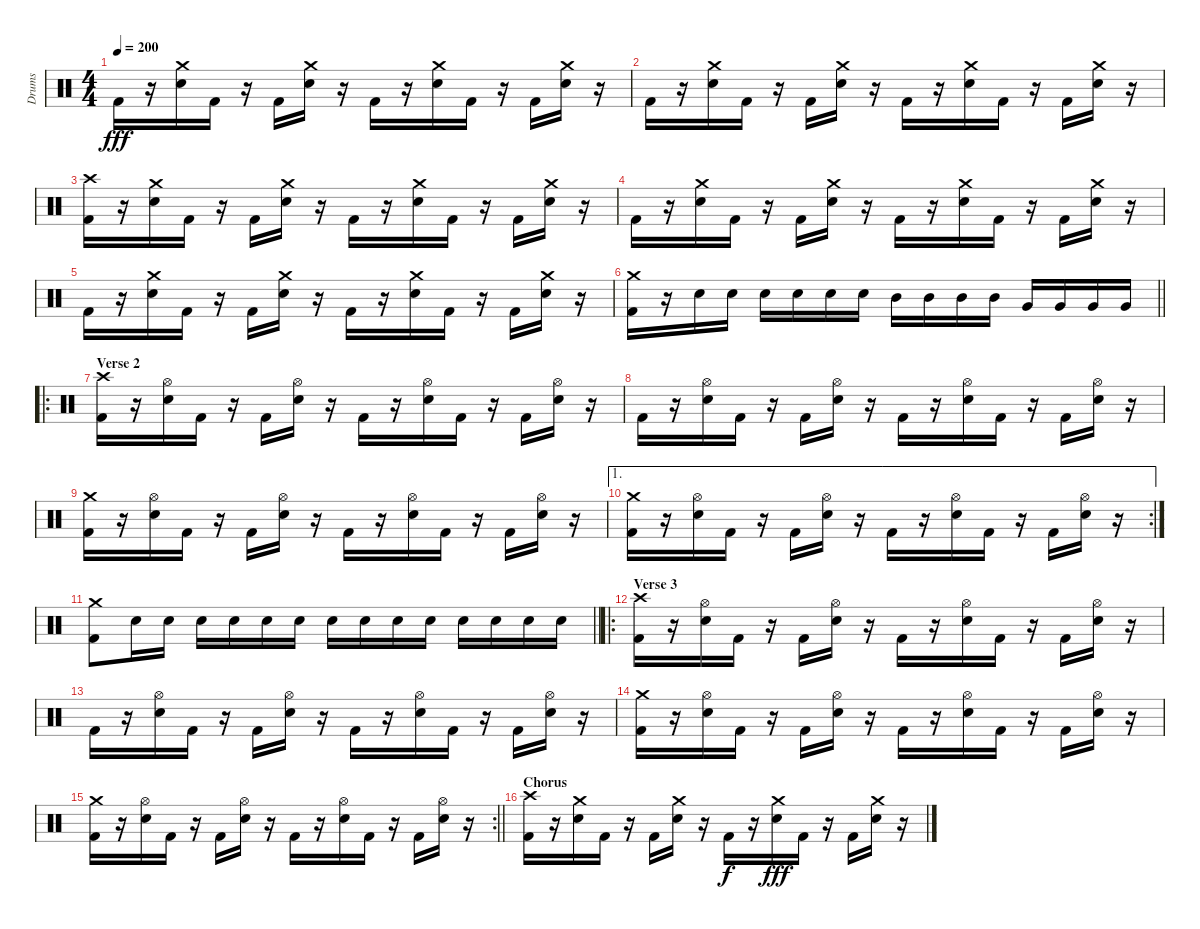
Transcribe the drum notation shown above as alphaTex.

\track ("Drums" "Drums") {instrument percussion}
\staff {score}
\articulation defaults
\ts (4 4)
\tempo 200
\clef neutral
\ks c "Kick (hit) 2".16{dy fff}
r.16 ("Crash medium (hit)" "Electric Snare (hit)").16 "Kick (hit) 2".16 r.16 "Kick (hit) 2".16 ("Crash medium (hit)" "Electric Snare (hit)").16 r.16 "Kick (hit) 2".16 r.16 ("Crash medium (hit)" "Electric Snare (hit)").16 "Kick (hit) 2".16 r.16 "Kick (hit) 2".16 ("Crash medium (hit)" "Electric Snare (hit)").16 r.16 |
"Kick (hit) 2".16 r.16 ("Crash medium (hit)" "Electric Snare (hit)").16 "Kick (hit) 2".16 r.16 "Kick (hit) 2".16 ("Crash medium (hit)" "Electric Snare (hit)").16 r.16 "Kick (hit) 2".16 r.16 ("Crash medium (hit)" "Electric Snare (hit)").16 "Kick (hit) 2".16 r.16 "Kick (hit) 2".16 ("Crash medium (hit)" "Electric Snare (hit)").16 r.16 |
("Crash high (hit)" "Kick (hit) 2").16 r.16 ("Crash medium (hit)" "Electric Snare (hit)").16 "Kick (hit) 2".16 r.16 "Kick (hit) 2".16 ("Crash medium (hit)" "Electric Snare (hit)").16 r.16 "Kick (hit) 2".16 r.16 ("Crash medium (hit)" "Electric Snare (hit)").16 "Kick (hit) 2".16 r.16 "Kick (hit) 2".16 ("Crash medium (hit)" "Electric Snare (hit)").16 r.16 |
"Kick (hit) 2".16 r.16 ("Crash medium (hit)" "Electric Snare (hit)").16 "Kick (hit) 2".16 r.16 "Kick (hit) 2".16 ("Crash medium (hit)" "Electric Snare (hit)").16 r.16 "Kick (hit) 2".16 r.16 ("Crash medium (hit)" "Electric Snare (hit)").16 "Kick (hit) 2".16 r.16 "Kick (hit) 2".16 ("Crash medium (hit)" "Electric Snare (hit)").16 r.16 |
"Kick (hit) 2".16 r.16 ("Crash medium (hit)" "Electric Snare (hit)").16 "Kick (hit) 2".16 r.16 "Kick (hit) 2".16 ("Crash medium (hit)" "Electric Snare (hit)").16 r.16 "Kick (hit) 2".16 r.16 ("Crash medium (hit)" "Electric Snare (hit)").16 "Kick (hit) 2".16 r.16 "Kick (hit) 2".16 ("Crash medium (hit)" "Electric Snare (hit)").16 r.16 |
\barLineRight lightlight
("Crash medium (hit)" "Kick (hit) 2").16 r.16 "Electric Snare (hit)".16 "Electric Snare (hit)".16 "Electric Snare (hit)".16 "Electric Snare (hit)".16 "Electric Snare (hit)".16 "Electric Snare (hit)".16 "Mid Tom (hit)".16 "Mid Tom (hit)".16 "Mid Tom (hit)".16 "Mid Tom (hit)".16 "Very Low Tom (hit)".16 "Very Low Tom (hit)".16 "Very Low Tom (hit)".16 "Very Low Tom (hit)".16 |
\ro
\section ("" "Verse 2")
("Crash high (hit)" "Kick (hit) 2").16 r.16 ("Hi-Hat (open)" "Electric Snare (hit)").16 "Kick (hit) 2".16 r.16 "Kick (hit) 2".16 ("Hi-Hat (open)" "Electric Snare (hit)").16 r.16 "Kick (hit) 2".16 r.16 ("Hi-Hat (open)" "Electric Snare (hit)").16 "Kick (hit) 2".16 r.16 "Kick (hit) 2".16 ("Hi-Hat (open)" "Electric Snare (hit)").16 r.16 |
"Kick (hit) 2".16 r.16 ("Hi-Hat (open)" "Electric Snare (hit)").16 "Kick (hit) 2".16 r.16 "Kick (hit) 2".16 ("Hi-Hat (open)" "Electric Snare (hit)").16 r.16 "Kick (hit) 2".16 r.16 ("Hi-Hat (open)" "Electric Snare (hit)").16 "Kick (hit) 2".16 r.16 "Kick (hit) 2".16 ("Hi-Hat (open)" "Electric Snare (hit)").16 r.16 |
("Crash medium (hit)" "Kick (hit) 2").16 r.16 ("Hi-Hat (open)" "Electric Snare (hit)").16 "Kick (hit) 2".16 r.16 "Kick (hit) 2".16 ("Hi-Hat (open)" "Electric Snare (hit)").16 r.16 "Kick (hit) 2".16 r.16 ("Hi-Hat (open)" "Electric Snare (hit)").16 "Kick (hit) 2".16 r.16 "Kick (hit) 2".16 ("Hi-Hat (open)" "Electric Snare (hit)").16 r.16 |
\ae 1
\rc 2
("Crash medium (hit)" "Kick (hit) 2").16 r.16 ("Hi-Hat (open)" "Electric Snare (hit)").16 "Kick (hit) 2".16 r.16 "Kick (hit) 2".16 ("Hi-Hat (open)" "Electric Snare (hit)").16 r.16 "Kick (hit) 2".16 r.16 ("Hi-Hat (open)" "Electric Snare (hit)").16 "Kick (hit) 2".16 r.16 "Kick (hit) 2".16 ("Hi-Hat (open)" "Electric Snare (hit)").16 r.16 |
\barLineRight lightlight
("Crash medium (hit)" "Kick (hit) 2").8 "Electric Snare (hit)".16 "Electric Snare (hit)".16 "Electric Snare (hit)".16 "Electric Snare (hit)".16 "Electric Snare (hit)".16 "Electric Snare (hit)".16 "Electric Snare (hit)".16 "Electric Snare (hit)".16 "Electric Snare (hit)".16 "Electric Snare (hit)".16 "Electric Snare (hit)".16 "Electric Snare (hit)".16 "Electric Snare (hit)".16 "Electric Snare (hit)".16 |
\ro
\section ("" "Verse 3")
("Crash high (hit)" "Kick (hit) 2").16 r.16 ("Hi-Hat (open)" "Electric Snare (hit)").16 "Kick (hit) 2".16 r.16 "Kick (hit) 2".16 ("Hi-Hat (open)" "Electric Snare (hit)").16 r.16 "Kick (hit) 2".16 r.16 ("Hi-Hat (open)" "Electric Snare (hit)").16 "Kick (hit) 2".16 r.16 "Kick (hit) 2".16 ("Hi-Hat (open)" "Electric Snare (hit)").16 r.16 |
"Kick (hit) 2".16 r.16 ("Hi-Hat (open)" "Electric Snare (hit)").16 "Kick (hit) 2".16 r.16 "Kick (hit) 2".16 ("Hi-Hat (open)" "Electric Snare (hit)").16 r.16 "Kick (hit) 2".16 r.16 ("Hi-Hat (open)" "Electric Snare (hit)").16 "Kick (hit) 2".16 r.16 "Kick (hit) 2".16 ("Hi-Hat (open)" "Electric Snare (hit)").16 r.16 |
("Crash medium (hit)" "Kick (hit) 2").16 r.16 ("Hi-Hat (open)" "Electric Snare (hit)").16 "Kick (hit) 2".16 r.16 "Kick (hit) 2".16 ("Hi-Hat (open)" "Electric Snare (hit)").16 r.16 "Kick (hit) 2".16 r.16 ("Hi-Hat (open)" "Electric Snare (hit)").16 "Kick (hit) 2".16 r.16 "Kick (hit) 2".16 ("Hi-Hat (open)" "Electric Snare (hit)").16 r.16 |
\rc 2
\barLineRight lightlight
("Crash medium (hit)" "Kick (hit) 2").16 r.16 ("Hi-Hat (open)" "Electric Snare (hit)").16 "Kick (hit) 2".16 r.16 "Kick (hit) 2".16 ("Hi-Hat (open)" "Electric Snare (hit)").16 r.16 "Kick (hit) 2".16 r.16 ("Hi-Hat (open)" "Electric Snare (hit)").16 "Kick (hit) 2".16 r.16 "Kick (hit) 2".16 ("Hi-Hat (open)" "Electric Snare (hit)").16 r.16 |
\section ("" "Chorus")
("Crash high (hit)" "Kick (hit) 2").16 r.16 ("Crash medium (hit)" "Electric Snare (hit)").16 "Kick (hit) 2".16 r.16 "Kick (hit) 2".16 ("Crash medium (hit)" "Electric Snare (hit)").16 r.16 "Kick (hit) 2".16{dy f} r.16 ("Crash medium (hit)" "Electric Snare (hit)").16{dy fff} "Kick (hit) 2".16 r.16 "Kick (hit) 2".16 ("Crash medium (hit)" "Electric Snare (hit)").16 r.16
